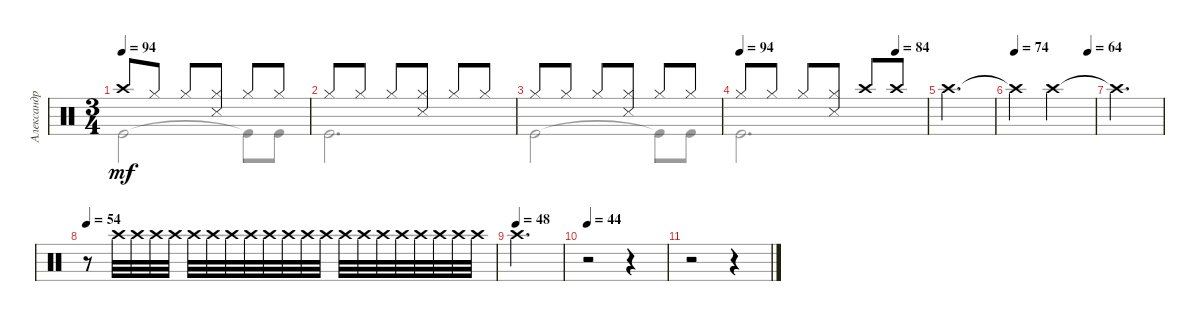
\track ("Александр Манякин" "Александр ") {instrument percussion}
\staff {score}
\articulation defaults
\voice
\ts (3 4)
\tempo 94
\clef neutral
\ks c "Crash high (hit)".8{dy mf} "Hi-Hat (closed)".8 "Hi-Hat (closed)".8
("Hi-Hat (closed)" "Snare (side stick) 3").8 "Hi-Hat (closed)".8 "Hi-Hat (closed)".8 |
"Hi-Hat (closed)".8 "Hi-Hat (closed)".8 "Hi-Hat (closed)".8 ("Hi-Hat (closed)" "Snare (side stick) 3").8 "Hi-Hat (closed)".8 "Hi-Hat (closed)".8 |
"Hi-Hat (closed)".8 "Hi-Hat (closed)".8 "Hi-Hat (closed)".8 ("Hi-Hat (closed)" "Snare (side stick) 3").8 "Hi-Hat (closed)".8 "Hi-Hat (closed)".8 |
\tempo 94
\tempo (84 0.8333333333333334)
"Hi-Hat (closed)".8 "Hi-Hat (closed)".8 "Hi-Hat (closed)".8 ("Hi-Hat (closed)" "Snare (side stick) 3").8 "Crash high (hit)".8 "Crash high (hit)".8 |
"Crash high (hit)".2{d} |
\tempo 74
\tempo (64 0.9166666666666666)
"Crash high (hit)"{t}.4 "Crash high (hit)".2 |
"Crash high (hit)"{t}.2{d} |
\tempo 54
r.8 "Crash high (hit)".32 "Crash high (hit)".32 "Crash high (hit)".32 "Crash high (hit)".32 "Crash high (hit)".32 "Crash high (hit)".32 "Crash high (hit)".32 "Crash high (hit)".32 "Crash high (hit)".32 "Crash high (hit)".32 "Crash high (hit)".32 "Crash high (hit)".32 "Crash high (hit)".32 "Crash high (hit)".32 "Crash high (hit)".32 "Crash high (hit)".32 "Crash high (hit)".32 "Crash high (hit)".32 "Crash high (hit)".32 "Crash high (hit)".32 |
\tempo (48)
"Crash high (hit)".2{d} |
\tempo 44
r.2 r.4 |
r.2 r.4
\voice
\clef neutral
\ottava regular
\simile none
\ks c "Kick (hit)".2{dy mf} "Kick (hit)"{t}.8 "Kick (hit)".8
|
"Kick (hit)".2{d} |
"Kick (hit)".2 "Kick (hit)"{t}.8 "Kick (hit)".8 |
"Kick (hit)".2{d} |
|
|
|
|
|
|
